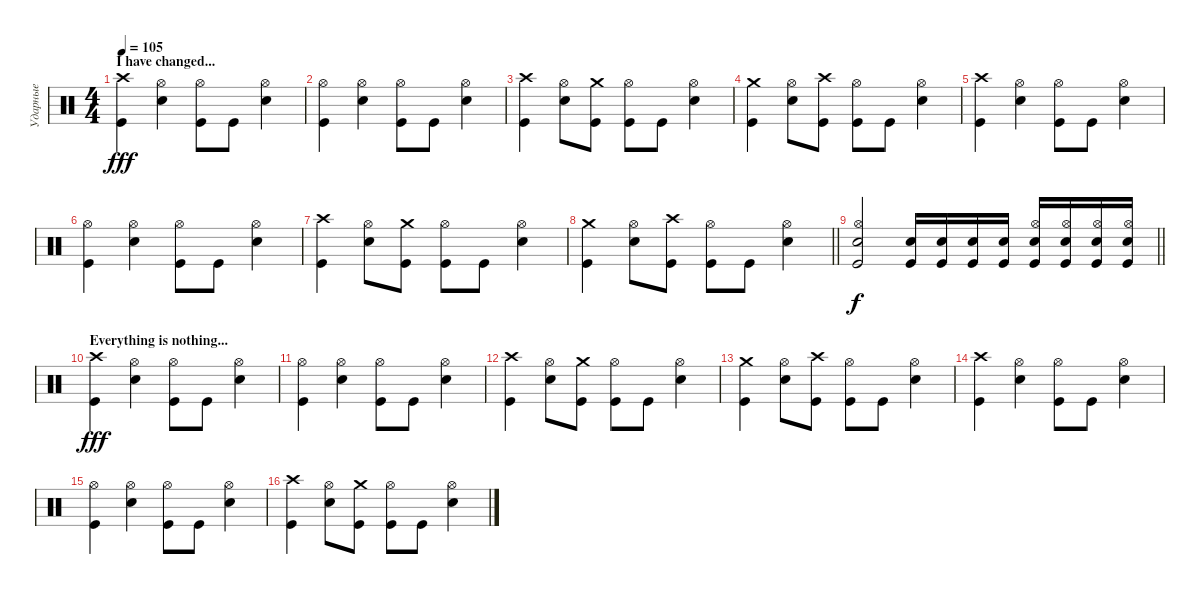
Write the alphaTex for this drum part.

\track ("Ударные" "Ударные") {instrument percussion}
\staff {score}
\articulation defaults
\ts (4 4)
\section ("" "I have changed...")
\tempo 105
\clef neutral
\ks c
("Crash high (hit)" "Kick (hit)").4{dy fff volume 16} ("Hi-Hat (open)" "Electric Snare (hit)").4 ("Hi-Hat (open)" "Kick (hit)").8 "Kick (hit)".8 ("Hi-Hat (open)" "Electric Snare (hit)").4 |
("Hi-Hat (open)" "Kick (hit)").4 ("Hi-Hat (open)" "Electric Snare (hit)").4 ("Hi-Hat (open)" "Kick (hit)").8 "Kick (hit)".8 ("Hi-Hat (open)" "Electric Snare (hit)").4 |
("Crash high (hit)" "Kick (hit)").4 ("Hi-Hat (open)" "Electric Snare (hit)").8 ("Crash medium (hit)" "Kick (hit)").8 ("Hi-Hat (open)" "Kick (hit)").8 "Kick (hit)".8 ("Hi-Hat (open)" "Electric Snare (hit)").4 |
("Crash medium (hit)" "Kick (hit)").4 ("Hi-Hat (open)" "Electric Snare (hit)").8 ("Crash high (hit)" "Kick (hit)").8 ("Hi-Hat (open)" "Kick (hit)").8 "Kick (hit)".8 ("Hi-Hat (open)" "Electric Snare (hit)").4 |
("Crash high (hit)" "Kick (hit)").4 ("Hi-Hat (open)" "Electric Snare (hit)").4 ("Hi-Hat (open)" "Kick (hit)").8 "Kick (hit)".8 ("Hi-Hat (open)" "Electric Snare (hit)").4 |
("Hi-Hat (open)" "Kick (hit)").4 ("Hi-Hat (open)" "Electric Snare (hit)").4 ("Hi-Hat (open)" "Kick (hit)").8 "Kick (hit)".8 ("Hi-Hat (open)" "Electric Snare (hit)").4 |
("Crash high (hit)" "Kick (hit)").4 ("Hi-Hat (open)" "Electric Snare (hit)").8 ("Crash medium (hit)" "Kick (hit)").8 ("Hi-Hat (open)" "Kick (hit)").8 "Kick (hit)".8 ("Hi-Hat (open)" "Electric Snare (hit)").4 |
\barLineRight lightlight
("Crash medium (hit)" "Kick (hit)").4 ("Hi-Hat (open)" "Electric Snare (hit)").8 ("Crash high (hit)" "Kick (hit)").8 ("Hi-Hat (open)" "Kick (hit)").8 "Kick (hit)".8 ("Hi-Hat (open)" "Electric Snare (hit)").4 |
\barLineRight lightlight
("Snare (hit) 2" "Kick (hit)" "Hi-Hat (open)").2{dy f} ("Snare (hit) 2" "Kick (hit)").16 ("Kick (hit)" "Snare (hit) 2").16 ("Snare (hit) 2" "Kick (hit)").16 ("Kick (hit)" "Snare (hit) 2").16 ("Snare (hit) 2" "Kick (hit)" "Hi-Hat (open)").16 ("Hi-Hat (open)" "Kick (hit)" "Snare (hit) 2").16 ("Snare (hit) 2" "Kick (hit)" "Hi-Hat (open)").16 ("Hi-Hat (open)" "Kick (hit)" "Snare (hit) 2").16 |
\section ("" "Everything is nothing...")
("Crash high (hit)" "Kick (hit)").4{dy fff volume 16} ("Hi-Hat (open)" "Electric Snare (hit)").4 ("Hi-Hat (open)" "Kick (hit)").8 "Kick (hit)".8 ("Hi-Hat (open)" "Electric Snare (hit)").4 |
("Hi-Hat (open)" "Kick (hit)").4 ("Hi-Hat (open)" "Electric Snare (hit)").4 ("Hi-Hat (open)" "Kick (hit)").8 "Kick (hit)".8 ("Hi-Hat (open)" "Electric Snare (hit)").4 |
("Crash high (hit)" "Kick (hit)").4 ("Hi-Hat (open)" "Electric Snare (hit)").8 ("Crash medium (hit)" "Kick (hit)").8 ("Hi-Hat (open)" "Kick (hit)").8 "Kick (hit)".8 ("Hi-Hat (open)" "Electric Snare (hit)").4 |
("Crash medium (hit)" "Kick (hit)").4 ("Hi-Hat (open)" "Electric Snare (hit)").8 ("Crash high (hit)" "Kick (hit)").8 ("Hi-Hat (open)" "Kick (hit)").8 "Kick (hit)".8 ("Hi-Hat (open)" "Electric Snare (hit)").4 |
("Crash high (hit)" "Kick (hit)").4 ("Hi-Hat (open)" "Electric Snare (hit)").4 ("Hi-Hat (open)" "Kick (hit)").8 "Kick (hit)".8 ("Hi-Hat (open)" "Electric Snare (hit)").4 |
("Hi-Hat (open)" "Kick (hit)").4 ("Hi-Hat (open)" "Electric Snare (hit)").4 ("Hi-Hat (open)" "Kick (hit)").8 "Kick (hit)".8 ("Hi-Hat (open)" "Electric Snare (hit)").4 |
("Crash high (hit)" "Kick (hit)").4 ("Hi-Hat (open)" "Electric Snare (hit)").8 ("Crash medium (hit)" "Kick (hit)").8 ("Hi-Hat (open)" "Kick (hit)").8 "Kick (hit)".8 ("Hi-Hat (open)" "Electric Snare (hit)").4
